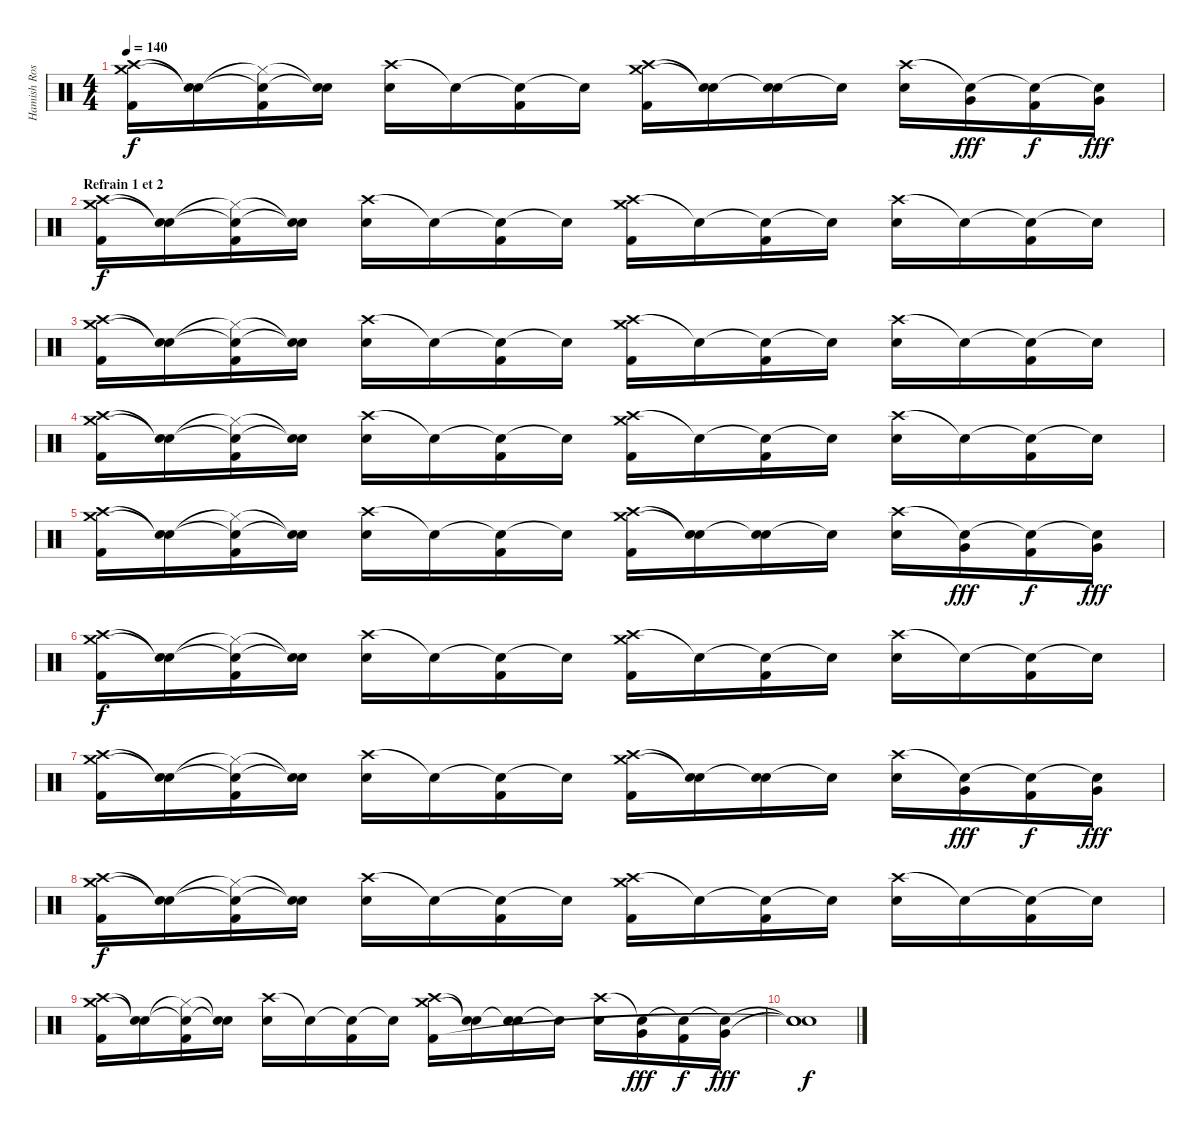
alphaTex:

\track ("Hamish Rosser" "Hamish Ros") {instrument percussion}
\staff {score}
\articulation defaults
\ts (4 4)
\tempo 140
\clef neutral
\ks c
("Crash high (hit)" "Crash medium (hit)" "Kick (hit) 2").16{dy f} ("Snare (hit)"{t} "Snare (hit)"{t}).16 ("Snare (hit)"{t} "Hi-Hat (closed)"{t} "Kick (hit) 2").16 ("Snare (hit)"{t} "Snare (hit)"{t}).16 ("Crash high (hit)" "Electric Snare (hit)").16 "Snare (hit)"{t}.16 ("Snare (hit)"{t} "Kick (hit) 2").16 "Snare (hit)"{t}.16 ("Crash high (hit)" "Crash medium (hit)" "Kick (hit) 2").16 ("Snare (hit)"{t} "Snare (hit)"{t}).16 ("Snare (hit)"{t} "Electric Snare (hit)").16 "Snare (hit)"{t}.16 ("Crash high (hit)" "Electric Snare (hit)").16 ("Snare (hit)"{t} "Very Low Tom (hit)").16{dy fff} ("Snare (hit)"{t} "Kick (hit) 2").16{dy f} ("Snare (hit)"{t} "Very Low Tom (hit)").16{dy fff} |
\section ("" "Refrain 1 et 2")
("Crash high (hit)" "Crash medium (hit)" "Kick (hit) 2").16{dy f} ("Snare (hit)"{t} "Snare (hit)"{t}).16 ("Snare (hit)"{t} "Hi-Hat (closed)"{t} "Kick (hit) 2").16 ("Snare (hit)"{t} "Snare (hit)"{t}).16 ("Crash high (hit)" "Electric Snare (hit)").16 "Snare (hit)"{t}.16 ("Snare (hit)"{t} "Kick (hit) 2").16 "Snare (hit)"{t}.16 ("Crash high (hit)" "Crash medium (hit)" "Kick (hit) 2").16 "Snare (hit)"{t}.16 ("Snare (hit)"{t} "Kick (hit) 2").16 "Snare (hit)"{t}.16 ("Crash high (hit)" "Electric Snare (hit)").16 "Snare (hit)"{t}.16 ("Snare (hit)"{t} "Kick (hit) 2").16 "Snare (hit)"{t}.16 |
("Crash high (hit)" "Crash medium (hit)" "Kick (hit) 2").16 ("Snare (hit)"{t} "Snare (hit)"{t}).16 ("Snare (hit)"{t} "Hi-Hat (closed)"{t} "Kick (hit) 2").16 ("Snare (hit)"{t} "Snare (hit)"{t}).16 ("Crash high (hit)" "Electric Snare (hit)").16 "Snare (hit)"{t}.16 ("Snare (hit)"{t} "Kick (hit) 2").16 "Snare (hit)"{t}.16 ("Crash high (hit)" "Crash medium (hit)" "Kick (hit) 2").16 "Snare (hit)"{t}.16 ("Snare (hit)"{t} "Kick (hit) 2").16 "Snare (hit)"{t}.16 ("Crash high (hit)" "Electric Snare (hit)").16 "Snare (hit)"{t}.16 ("Snare (hit)"{t} "Kick (hit) 2").16 "Snare (hit)"{t}.16 |
("Crash high (hit)" "Crash medium (hit)" "Kick (hit) 2").16 ("Snare (hit)"{t} "Snare (hit)"{t}).16 ("Snare (hit)"{t} "Hi-Hat (closed)"{t} "Kick (hit) 2").16 ("Snare (hit)"{t} "Snare (hit)"{t}).16 ("Crash high (hit)" "Electric Snare (hit)").16 "Snare (hit)"{t}.16 ("Snare (hit)"{t} "Kick (hit) 2").16 "Snare (hit)"{t}.16 ("Crash high (hit)" "Crash medium (hit)" "Kick (hit) 2").16 "Snare (hit)"{t}.16 ("Snare (hit)"{t} "Kick (hit) 2").16 "Snare (hit)"{t}.16 ("Crash high (hit)" "Electric Snare (hit)").16 "Snare (hit)"{t}.16 ("Snare (hit)"{t} "Kick (hit) 2").16 "Snare (hit)"{t}.16 |
("Crash high (hit)" "Crash medium (hit)" "Kick (hit) 2").16 ("Snare (hit)"{t} "Snare (hit)"{t}).16 ("Snare (hit)"{t} "Hi-Hat (closed)"{t} "Kick (hit) 2").16 ("Snare (hit)"{t} "Snare (hit)"{t}).16 ("Crash high (hit)" "Electric Snare (hit)").16 "Snare (hit)"{t}.16 ("Snare (hit)"{t} "Kick (hit) 2").16 "Snare (hit)"{t}.16 ("Crash high (hit)" "Crash medium (hit)" "Kick (hit) 2").16 ("Snare (hit)"{t} "Snare (hit)"{t}).16 ("Snare (hit)"{t} "Electric Snare (hit)").16 "Snare (hit)"{t}.16 ("Crash high (hit)" "Electric Snare (hit)").16 ("Snare (hit)"{t} "Very Low Tom (hit)").16{dy fff} ("Snare (hit)"{t} "Kick (hit) 2").16{dy f} ("Snare (hit)"{t} "Very Low Tom (hit)").16{dy fff} |
("Crash high (hit)" "Crash medium (hit)" "Kick (hit) 2").16{dy f} ("Snare (hit)"{t} "Snare (hit)"{t}).16 ("Snare (hit)"{t} "Hi-Hat (closed)"{t} "Kick (hit) 2").16 ("Snare (hit)"{t} "Snare (hit)"{t}).16 ("Crash high (hit)" "Electric Snare (hit)").16 "Snare (hit)"{t}.16 ("Snare (hit)"{t} "Kick (hit) 2").16 "Snare (hit)"{t}.16 ("Crash high (hit)" "Crash medium (hit)" "Kick (hit) 2").16 "Snare (hit)"{t}.16 ("Snare (hit)"{t} "Kick (hit) 2").16 "Snare (hit)"{t}.16 ("Crash high (hit)" "Electric Snare (hit)").16 "Snare (hit)"{t}.16 ("Snare (hit)"{t} "Kick (hit) 2").16 "Snare (hit)"{t}.16 |
("Crash high (hit)" "Crash medium (hit)" "Kick (hit) 2").16 ("Snare (hit)"{t} "Snare (hit)"{t}).16 ("Snare (hit)"{t} "Hi-Hat (closed)"{t} "Kick (hit) 2").16 ("Snare (hit)"{t} "Snare (hit)"{t}).16 ("Crash high (hit)" "Electric Snare (hit)").16 "Snare (hit)"{t}.16 ("Snare (hit)"{t} "Kick (hit) 2").16 "Snare (hit)"{t}.16 ("Crash high (hit)" "Crash medium (hit)" "Kick (hit) 2").16 ("Snare (hit)"{t} "Snare (hit)"{t}).16 ("Snare (hit)"{t} "Electric Snare (hit)").16 "Snare (hit)"{t}.16 ("Crash high (hit)" "Electric Snare (hit)").16 ("Snare (hit)"{t} "Very Low Tom (hit)").16{dy fff} ("Snare (hit)"{t} "Kick (hit) 2").16{dy f} ("Snare (hit)"{t} "Very Low Tom (hit)").16{dy fff} |
("Crash high (hit)" "Crash medium (hit)" "Kick (hit) 2").16{dy f} ("Snare (hit)"{t} "Snare (hit)"{t}).16 ("Snare (hit)"{t} "Hi-Hat (closed)"{t} "Kick (hit) 2").16 ("Snare (hit)"{t} "Snare (hit)"{t}).16 ("Crash high (hit)" "Electric Snare (hit)").16 "Snare (hit)"{t}.16 ("Snare (hit)"{t} "Kick (hit) 2").16 "Snare (hit)"{t}.16 ("Crash high (hit)" "Crash medium (hit)" "Kick (hit) 2").16 "Snare (hit)"{t}.16 ("Snare (hit)"{t} "Kick (hit) 2").16 "Snare (hit)"{t}.16 ("Crash high (hit)" "Electric Snare (hit)").16 "Snare (hit)"{t}.16 ("Snare (hit)"{t} "Kick (hit) 2").16 "Snare (hit)"{t}.16 |
("Crash high (hit)" "Crash medium (hit)" "Kick (hit) 2").16 ("Snare (hit)"{t} "Snare (hit)"{t}).16 ("Snare (hit)"{t} "Hi-Hat (closed)"{t} "Kick (hit) 2").16 ("Snare (hit)"{t} "Snare (hit)"{t}).16 ("Crash high (hit)" "Electric Snare (hit)").16 "Snare (hit)"{t}.16 ("Snare (hit)"{t} "Kick (hit) 2").16 "Snare (hit)"{t}.16 ("Crash high (hit)" "Crash medium (hit)" "Kick (hit) 2").16 ("Snare (hit)"{t} "Snare (hit)"{t}).16 ("Snare (hit)"{t} "Electric Snare (hit)").16 "Snare (hit)"{t}.16 ("Crash high (hit)" "Electric Snare (hit)").16 ("Snare (hit)"{t} "Very Low Tom (hit)").16{dy fff} ("Snare (hit)"{t} "Kick (hit) 2").16{dy f} ("Snare (hit)"{t} "Very Low Tom (hit)").16{dy fff} |
("Snare (hit)"{t} "Snare (hit)"{t} "Snare (hit)"{t}).1{dy f}
